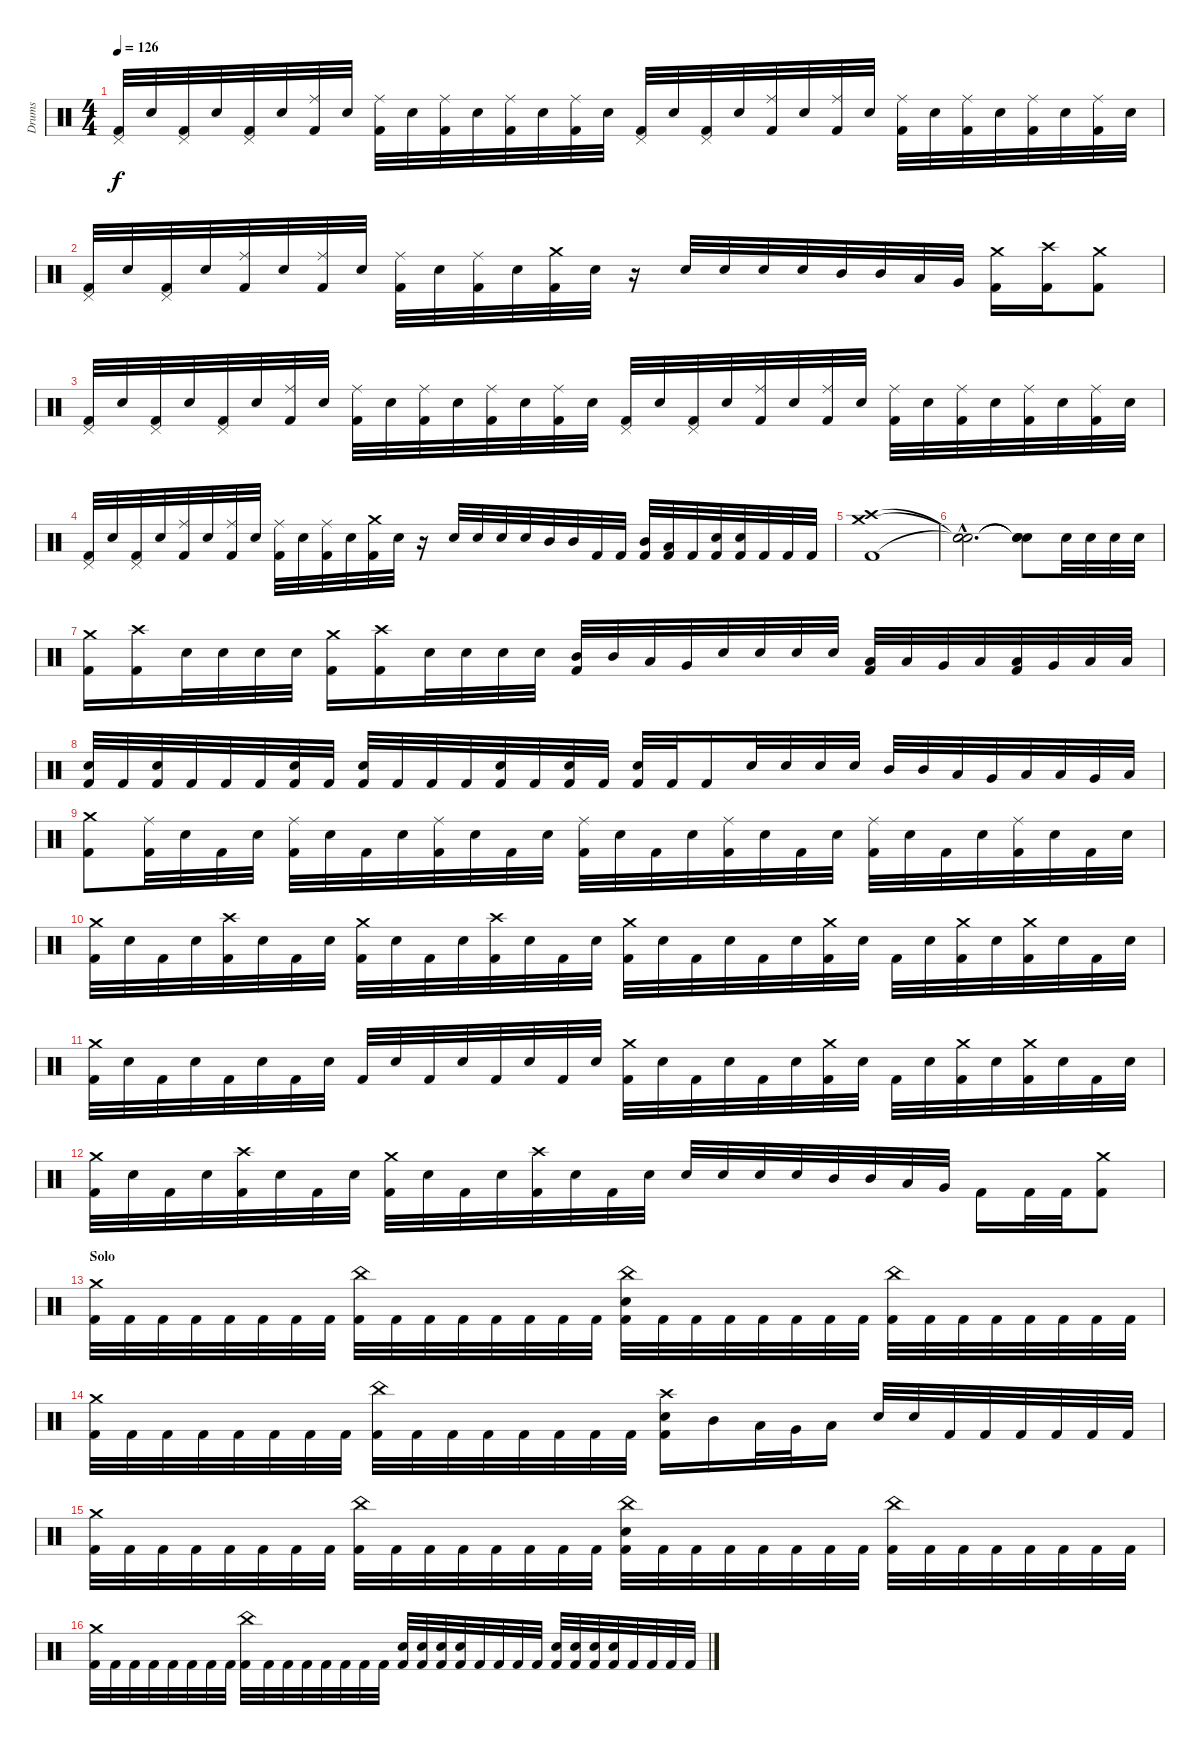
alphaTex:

\track ("Drums" "Drums") {instrument percussion}
\staff {score}
\articulation defaults
\ts (4 4)
\tempo 126
\clef neutral
\ks c
("Pedal Hi-Hat (hit)" "Kick (hit) 2").32{dy f} "Electric Snare (hit)".32 ("Pedal Hi-Hat (hit)" "Kick (hit) 2").32 "Electric Snare (hit)".32 ("Pedal Hi-Hat (hit)" "Kick (hit) 2").32 "Electric Snare (hit)".32 ("Ride (middle)" "Kick (hit) 2").32 "Electric Snare (hit)".32 ("Ride (middle)" "Kick (hit) 2").32 "Electric Snare (hit)".32 ("Ride (middle)" "Kick (hit) 2").32 "Electric Snare (hit)".32 ("Ride (middle)" "Kick (hit) 2").32 "Electric Snare (hit)".32 ("Ride (middle)" "Kick (hit) 2").32 "Electric Snare (hit)".32 ("Pedal Hi-Hat (hit)" "Kick (hit) 2").32 "Electric Snare (hit)".32 ("Pedal Hi-Hat (hit)" "Kick (hit) 2").32 "Electric Snare (hit)".32 ("Ride (middle)" "Kick (hit) 2").32 "Electric Snare (hit)".32 ("Ride (middle)" "Kick (hit) 2").32 "Electric Snare (hit)".32 ("Ride (middle)" "Kick (hit) 2").32 "Electric Snare (hit)".32 ("Ride (middle)" "Kick (hit) 2").32 "Electric Snare (hit)".32 ("Ride (middle)" "Kick (hit) 2").32 "Electric Snare (hit)".32 ("Ride (middle)" "Kick (hit) 2").32 "Electric Snare (hit)".32 |
("Pedal Hi-Hat (hit)" "Kick (hit) 2").32 "Electric Snare (hit)".32 ("Pedal Hi-Hat (hit)" "Kick (hit) 2").32 "Electric Snare (hit)".32 ("Ride (middle)" "Kick (hit) 2").32 "Electric Snare (hit)".32 ("Ride (middle)" "Kick (hit) 2").32 "Electric Snare (hit)".32 ("Ride (middle)" "Kick (hit) 2").32 "Electric Snare (hit)".32 ("Ride (middle)" "Kick (hit) 2").32 "Electric Snare (hit)".32 ("Crash medium (hit)" "Kick (hit) 2").32 "Electric Snare (hit)".32 r.16 "Electric Snare (hit)".32 "Electric Snare (hit)".32 "Electric Snare (hit)".32 "Electric Snare (hit)".32 "Mid Tom (hit)".32 "Mid Tom (hit)".32 "Low Tom (hit)".32 "Very Low Tom (hit)".32 ("Crash medium (hit)" "Kick (hit) 2").16 ("Crash high (hit)" "Kick (hit) 2").16 ("Crash medium (hit)" "Kick (hit) 2").8 |
("Pedal Hi-Hat (hit)" "Kick (hit) 2").32 "Electric Snare (hit)".32 ("Pedal Hi-Hat (hit)" "Kick (hit) 2").32 "Electric Snare (hit)".32 ("Pedal Hi-Hat (hit)" "Kick (hit) 2").32 "Electric Snare (hit)".32 ("Ride (middle)" "Kick (hit) 2").32 "Electric Snare (hit)".32 ("Ride (middle)" "Kick (hit) 2").32 "Electric Snare (hit)".32 ("Ride (middle)" "Kick (hit) 2").32 "Electric Snare (hit)".32 ("Ride (middle)" "Kick (hit) 2").32 "Electric Snare (hit)".32 ("Ride (middle)" "Kick (hit) 2").32 "Electric Snare (hit)".32 ("Pedal Hi-Hat (hit)" "Kick (hit) 2").32 "Electric Snare (hit)".32 ("Pedal Hi-Hat (hit)" "Kick (hit) 2").32 "Electric Snare (hit)".32 ("Ride (middle)" "Kick (hit) 2").32 "Electric Snare (hit)".32 ("Ride (middle)" "Kick (hit) 2").32 "Electric Snare (hit)".32 ("Ride (middle)" "Kick (hit) 2").32 "Electric Snare (hit)".32 ("Ride (middle)" "Kick (hit) 2").32 "Electric Snare (hit)".32 ("Ride (middle)" "Kick (hit) 2").32 "Electric Snare (hit)".32 ("Ride (middle)" "Kick (hit) 2").32 "Electric Snare (hit)".32 |
("Pedal Hi-Hat (hit)" "Kick (hit) 2").32 "Electric Snare (hit)".32 ("Pedal Hi-Hat (hit)" "Kick (hit) 2").32 "Electric Snare (hit)".32 ("Ride (middle)" "Kick (hit) 2").32 "Electric Snare (hit)".32 ("Ride (middle)" "Kick (hit) 2").32 "Electric Snare (hit)".32 ("Ride (middle)" "Kick (hit) 2").32 "Electric Snare (hit)".32 ("Ride (middle)" "Kick (hit) 2").32 "Electric Snare (hit)".32 ("Crash medium (hit)" "Kick (hit) 2").32 "Electric Snare (hit)".32 r.16 "Electric Snare (hit)".32 "Electric Snare (hit)".32 "Electric Snare (hit)".32 "Electric Snare (hit)".32 "Mid Tom (hit)".32 "Mid Tom (hit)".32 "Kick (hit) 2".32 "Kick (hit) 2".32 ("Mid Tom (hit)" "Kick (hit) 2").32 ("Low Tom (hit)" "Kick (hit) 2").32 "Kick (hit) 2".32 ("Electric Snare (hit)" "Kick (hit) 2").32 ("Electric Snare (hit)" "Kick (hit) 2").32 "Kick (hit) 2".32 "Kick (hit) 2".32 "Kick (hit) 2".32 |
\section ("" "")
("Crash medium (hit)" "Crash high (hit)" "Kick (hit) 2").1 |
("Snare (hit)"{hac t} "Snare (hit)"{hac t} "Snare (hit)"{hac t}).2{d} ("Snare (hit)"{t} "Snare (hit)"{t} "Snare (hit)"{t}).8 "Electric Snare (hit)".32 "Electric Snare (hit)".32 "Electric Snare (hit)".32 "Electric Snare (hit)".32 |
("Crash medium (hit)" "Kick (hit) 2").16 ("Crash high (hit)" "Kick (hit) 2").16 "Electric Snare (hit)".32 "Electric Snare (hit)".32 "Electric Snare (hit)".32 "Electric Snare (hit)".32 ("Crash medium (hit)" "Kick (hit) 2").16 ("Crash high (hit)" "Kick (hit) 2").16 "Electric Snare (hit)".32 "Electric Snare (hit)".32 "Electric Snare (hit)".32 "Electric Snare (hit)".32 ("Mid Tom (hit)" "Kick (hit) 2").32 "Mid Tom (hit)".32 "Low Tom (hit)".32 "Very Low Tom (hit)".32 "Electric Snare (hit)".32 "Electric Snare (hit)".32 "Electric Snare (hit)".32 "Electric Snare (hit)".32 ("Low Tom (hit)" "Kick (hit) 2").32 "Low Tom (hit)".32 "Very Low Tom (hit)".32 "Low Floor Tom (hit)".32 ("Low Tom (hit)" "Kick (hit) 2").32 "Very Low Tom (hit)".32 "Low Floor Tom (hit)".32 "Low Floor Tom (hit)".32 |
("Electric Snare (hit)" "Kick (hit) 2").32 "Kick (hit) 2".32 ("Electric Snare (hit)" "Kick (hit) 2").32 "Kick (hit) 2".32 "Kick (hit) 2".32 "Kick (hit) 2".32 ("Electric Snare (hit)" "Kick (hit) 2").32 "Kick (hit) 2".32 ("Electric Snare (hit)" "Kick (hit) 2").32 "Kick (hit) 2".32 "Kick (hit) 2".32 "Kick (hit) 2".32 ("Electric Snare (hit)" "Kick (hit) 2").32 "Kick (hit) 2".32 ("Electric Snare (hit)" "Kick (hit) 2").32 "Kick (hit) 2".32 ("Electric Snare (hit)" "Kick (hit) 2").32 "Kick (hit) 2".32 "Kick (hit) 2".16 "Electric Snare (hit)".32 "Electric Snare (hit)".32 "Electric Snare (hit)".32 "Electric Snare (hit)".32 "Mid Tom (hit)".32 "Mid Tom (hit)".32 "Low Tom (hit)".32 "Very Low Tom (hit)".32 "Low Tom (hit)".32 "Low Tom (hit)".32 "Very Low Tom (hit)".32 "Low Floor Tom (hit)".32 |
("Crash medium (hit)" "Kick (hit) 2").8 ("Ride (middle)" "Kick (hit) 2").32 "Electric Snare (hit)".32 "Kick (hit) 2".32 "Electric Snare (hit)".32 ("Ride (middle)" "Kick (hit) 2").32 "Electric Snare (hit)".32 "Kick (hit) 2".32 "Electric Snare (hit)".32 ("Ride (middle)" "Kick (hit) 2").32 "Electric Snare (hit)".32 "Kick (hit) 2".32 "Electric Snare (hit)".32 ("Ride (middle)" "Kick (hit) 2").32 "Electric Snare (hit)".32 "Kick (hit) 2".32 "Electric Snare (hit)".32 ("Ride (middle)" "Kick (hit) 2").32 "Electric Snare (hit)".32 "Kick (hit) 2".32 "Electric Snare (hit)".32 ("Ride (middle)" "Kick (hit) 2").32 "Electric Snare (hit)".32 "Kick (hit) 2".32 "Electric Snare (hit)".32 ("Ride (middle)" "Kick (hit) 2").32 "Electric Snare (hit)".32 "Kick (hit) 2".32 "Electric Snare (hit)".32 |
("Crash medium (hit)" "Kick (hit) 2").32 "Electric Snare (hit)".32 "Kick (hit) 2".32 "Electric Snare (hit)".32 ("Crash high (hit)" "Kick (hit) 2").32 "Electric Snare (hit)".32 "Kick (hit) 2".32 "Electric Snare (hit)".32 ("Crash medium (hit)" "Kick (hit) 2").32 "Electric Snare (hit)".32 "Kick (hit) 2".32 "Electric Snare (hit)".32 ("Crash high (hit)" "Kick (hit) 2").32 "Electric Snare (hit)".32 "Kick (hit) 2".32 "Electric Snare (hit)".32 ("Crash medium (hit)" "Kick (hit) 2").32 "Electric Snare (hit)".32 "Kick (hit) 2".32 "Electric Snare (hit)".32 "Kick (hit) 2".32 "Electric Snare (hit)".32 ("Crash medium (hit)" "Kick (hit) 2").32 "Electric Snare (hit)".32 "Kick (hit) 2".32 "Electric Snare (hit)".32 ("Crash medium (hit)" "Kick (hit) 2").32 "Electric Snare (hit)".32 ("Crash medium (hit)" "Kick (hit) 2").32 "Electric Snare (hit)".32 "Kick (hit) 2".32 "Electric Snare (hit)".32 |
("Crash medium (hit)" "Kick (hit) 2").32 "Electric Snare (hit)".32 "Kick (hit) 2".32 "Electric Snare (hit)".32 "Kick (hit) 2".32 "Electric Snare (hit)".32 "Kick (hit) 2".32 "Electric Snare (hit)".32 "Kick (hit) 2".32 "Electric Snare (hit)".32 "Kick (hit) 2".32 "Electric Snare (hit)".32 "Kick (hit) 2".32 "Electric Snare (hit)".32 "Kick (hit) 2".32 "Electric Snare (hit)".32 ("Crash medium (hit)" "Kick (hit) 2").32 "Electric Snare (hit)".32 "Kick (hit) 2".32 "Electric Snare (hit)".32 "Kick (hit) 2".32 "Electric Snare (hit)".32 ("Crash medium (hit)" "Kick (hit) 2").32 "Electric Snare (hit)".32 "Kick (hit) 2".32 "Electric Snare (hit)".32 ("Crash medium (hit)" "Kick (hit) 2").32 "Electric Snare (hit)".32 ("Crash medium (hit)" "Kick (hit) 2").32 "Electric Snare (hit)".32 "Kick (hit) 2".32 "Electric Snare (hit)".32 |
("Crash medium (hit)" "Kick (hit) 2").32 "Electric Snare (hit)".32 "Kick (hit) 2".32 "Electric Snare (hit)".32 ("Crash high (hit)" "Kick (hit) 2").32 "Electric Snare (hit)".32 "Kick (hit) 2".32 "Electric Snare (hit)".32 ("Crash medium (hit)" "Kick (hit) 2").32 "Electric Snare (hit)".32 "Kick (hit) 2".32 "Electric Snare (hit)".32 ("Crash high (hit)" "Kick (hit) 2").32 "Electric Snare (hit)".32 "Kick (hit) 2".32 "Electric Snare (hit)".32 "Electric Snare (hit)".32 "Electric Snare (hit)".32 "Electric Snare (hit)".32 "Electric Snare (hit)".32 "Mid Tom (hit)".32 "Mid Tom (hit)".32 "Low Tom (hit)".32 "Very Low Tom (hit)".32 "Kick (hit) 2".16 "Kick (hit) 2".32 "Kick (hit) 2".32 ("Crash medium (hit)" "Kick (hit) 2").8 |
\section ("" "Solo")
("Crash medium (hit)" "Kick (hit) 2").32 "Kick (hit) 2".32 "Kick (hit) 2".32 "Kick (hit) 2".32 "Kick (hit) 2".32 "Kick (hit) 2".32 "Kick (hit) 2".32 "Kick (hit) 2".32 ("China (hit)" "Kick (hit) 2").32 "Kick (hit) 2".32 "Kick (hit) 2".32 "Kick (hit) 2".32 "Kick (hit) 2".32 "Kick (hit) 2".32 "Kick (hit) 2".32 "Kick (hit) 2".32 ("China (hit)" "Electric Snare (hit)" "Kick (hit) 2").32 "Kick (hit) 2".32 "Kick (hit) 2".32 "Kick (hit) 2".32 "Kick (hit) 2".32 "Kick (hit) 2".32 "Kick (hit) 2".32 "Kick (hit) 2".32 ("China (hit)" "Kick (hit) 2").32 "Kick (hit) 2".32 "Kick (hit) 2".32 "Kick (hit) 2".32 "Kick (hit) 2".32 "Kick (hit) 2".32 "Kick (hit) 2".32 "Kick (hit) 2".32 |
("Crash medium (hit)" "Kick (hit) 2").32 "Kick (hit) 2".32 "Kick (hit) 2".32 "Kick (hit) 2".32 "Kick (hit) 2".32 "Kick (hit) 2".32 "Kick (hit) 2".32 "Kick (hit) 2".32 ("China (hit)" "Kick (hit) 2").32 "Kick (hit) 2".32 "Kick (hit) 2".32 "Kick (hit) 2".32 "Kick (hit) 2".32 "Kick (hit) 2".32 "Kick (hit) 2".32 "Kick (hit) 2".32 ("Crash high (hit)" "Electric Snare (hit)" "Kick (hit) 2").16 "Mid Tom (hit)".16 "Low Tom (hit)".32 "Very Low Tom (hit)".32 "Low Floor Tom (hit)".16 "Electric Snare (hit)".32 "Electric Snare (hit)".32 "Kick (hit) 2".32 "Kick (hit) 2".32 "Kick (hit) 2".32 "Kick (hit) 2".32 "Kick (hit) 2".32 "Kick (hit) 2".32 |
("Crash medium (hit)" "Kick (hit) 2").32 "Kick (hit) 2".32 "Kick (hit) 2".32 "Kick (hit) 2".32 "Kick (hit) 2".32 "Kick (hit) 2".32 "Kick (hit) 2".32 "Kick (hit) 2".32 ("China (hit)" "Kick (hit) 2").32 "Kick (hit) 2".32 "Kick (hit) 2".32 "Kick (hit) 2".32 "Kick (hit) 2".32 "Kick (hit) 2".32 "Kick (hit) 2".32 "Kick (hit) 2".32 ("China (hit)" "Electric Snare (hit)" "Kick (hit) 2").32 "Kick (hit) 2".32 "Kick (hit) 2".32 "Kick (hit) 2".32 "Kick (hit) 2".32 "Kick (hit) 2".32 "Kick (hit) 2".32 "Kick (hit) 2".32 ("China (hit)" "Kick (hit) 2").32 "Kick (hit) 2".32 "Kick (hit) 2".32 "Kick (hit) 2".32 "Kick (hit) 2".32 "Kick (hit) 2".32 "Kick (hit) 2".32 "Kick (hit) 2".32 |
("Crash medium (hit)" "Kick (hit) 2").32 "Kick (hit) 2".32 "Kick (hit) 2".32 "Kick (hit) 2".32 "Kick (hit) 2".32 "Kick (hit) 2".32 "Kick (hit) 2".32 "Kick (hit) 2".32 ("China (hit)" "Kick (hit) 2").32 "Kick (hit) 2".32 "Kick (hit) 2".32 "Kick (hit) 2".32 "Kick (hit) 2".32 "Kick (hit) 2".32 "Kick (hit) 2".32 "Kick (hit) 2".32 ("Electric Snare (hit)" "Kick (hit) 2").32 ("Electric Snare (hit)" "Kick (hit) 2").32 ("Electric Snare (hit)" "Kick (hit) 2").32 ("Electric Snare (hit)" "Kick (hit) 2").32 "Kick (hit) 2".32 "Kick (hit) 2".32 "Kick (hit) 2".32 "Kick (hit) 2".32 ("Electric Snare (hit)" "Kick (hit) 2").32 ("Electric Snare (hit)" "Kick (hit) 2").32 ("Electric Snare (hit)" "Kick (hit) 2").32 ("Electric Snare (hit)" "Kick (hit) 2").32 "Kick (hit) 2".32 "Kick (hit) 2".32 "Kick (hit) 2".32 "Kick (hit) 2".32
